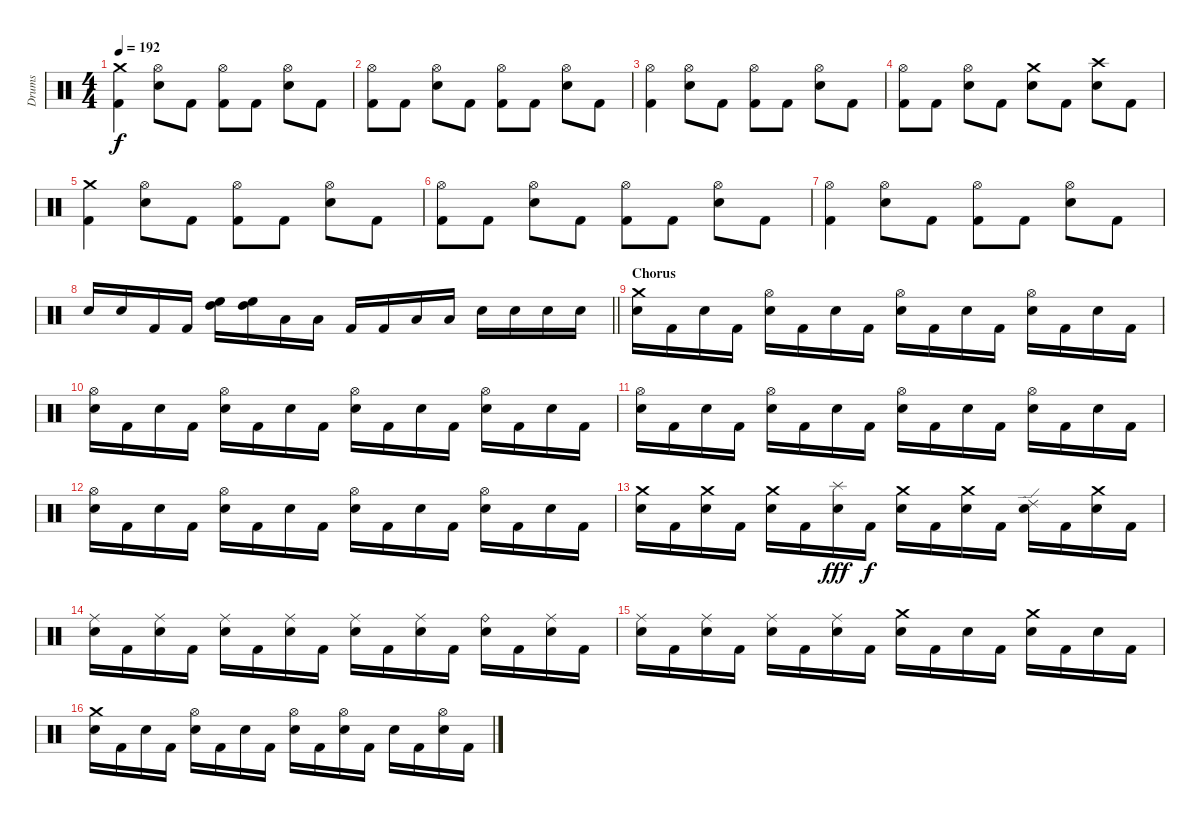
\track ("Drums" "Drums") {instrument percussion}
\staff {score}
\articulation defaults
\ts (4 4)
\tempo 192
\clef neutral
\ks c
("Crash medium (hit)" "Kick (hit) 2").4{dy f} ("Hi-Hat (open)" "Electric Snare (hit)").8 "Kick (hit) 2".8 ("Hi-Hat (open)" "Kick (hit) 2").8 "Kick (hit) 2".8 ("Hi-Hat (open)" "Electric Snare (hit)").8 "Kick (hit) 2".8 |
("Hi-Hat (open)" "Kick (hit) 2").8 "Kick (hit) 2".8 ("Hi-Hat (open)" "Electric Snare (hit)").8 "Kick (hit) 2".8 ("Hi-Hat (open)" "Kick (hit) 2").8 "Kick (hit) 2".8 ("Hi-Hat (open)" "Electric Snare (hit)").8 "Kick (hit) 2".8 |
("Hi-Hat (open)" "Kick (hit) 2").4 ("Hi-Hat (open)" "Electric Snare (hit)").8 "Kick (hit) 2".8 ("Hi-Hat (open)" "Kick (hit) 2").8 "Kick (hit) 2".8 ("Hi-Hat (open)" "Electric Snare (hit)").8 "Kick (hit) 2".8 |
("Hi-Hat (open)" "Kick (hit) 2").8 "Kick (hit) 2".8 ("Hi-Hat (open)" "Electric Snare (hit)").8 "Kick (hit) 2".8 ("Crash medium (hit)" "Electric Snare (hit)").8 "Kick (hit) 2".8 ("Crash high (hit)" "Electric Snare (hit)").8 "Kick (hit) 2".8 |
("Crash medium (hit)" "Kick (hit) 2").4 ("Hi-Hat (open)" "Electric Snare (hit)").8 "Kick (hit) 2".8 ("Hi-Hat (open)" "Kick (hit) 2").8 "Kick (hit) 2".8 ("Hi-Hat (open)" "Electric Snare (hit)").8 "Kick (hit) 2".8 |
("Hi-Hat (open)" "Kick (hit) 2").8 "Kick (hit) 2".8 ("Hi-Hat (open)" "Electric Snare (hit)").8 "Kick (hit) 2".8 ("Hi-Hat (open)" "Kick (hit) 2").8 "Kick (hit) 2".8 ("Hi-Hat (open)" "Electric Snare (hit)").8 "Kick (hit) 2".8 |
("Hi-Hat (open)" "Kick (hit) 2").4 ("Hi-Hat (open)" "Electric Snare (hit)").8 "Kick (hit) 2".8 ("Hi-Hat (open)" "Kick (hit) 2").8 "Kick (hit) 2".8 ("Hi-Hat (open)" "Electric Snare (hit)").8 "Kick (hit) 2".8 |
\barLineRight lightlight "Electric Snare (hit)".16 "Electric Snare (hit)".16 "Kick (hit) 2".16 "Kick (hit) 2".16
("High Tom (hit)" "High Floor Tom (hit)").16 ("High Tom (hit)" "High Floor Tom (hit)").16 "Low Tom (hit)".16 "Low Tom (hit)".16 "Kick (hit) 2".16 "Kick (hit) 2".16 "Low Tom (hit)".16 "Low Tom (hit)".16 "Electric Snare (hit)".16 "Electric Snare (hit)".16 "Electric Snare (hit)".16 "Electric Snare (hit)".16 |
\section ("" "Chorus")
("Crash medium (hit)" "Electric Snare (hit)").16 "Kick (hit) 2".16 "Electric Snare (hit)".16 "Kick (hit) 2".16 ("Hi-Hat (open)" "Electric Snare (hit)").16 "Kick (hit) 2".16 "Electric Snare (hit)".16 "Kick (hit) 2".16 ("Hi-Hat (open)" "Electric Snare (hit)").16 "Kick (hit) 2".16 "Electric Snare (hit)".16 "Kick (hit) 2".16 ("Hi-Hat (open)" "Electric Snare (hit)").16 "Kick (hit) 2".16 "Electric Snare (hit)".16 "Kick (hit) 2".16 |
("Hi-Hat (open)" "Electric Snare (hit)").16 "Kick (hit) 2".16 "Electric Snare (hit)".16 "Kick (hit) 2".16 ("Hi-Hat (open)" "Electric Snare (hit)").16 "Kick (hit) 2".16 "Electric Snare (hit)".16 "Kick (hit) 2".16 ("Hi-Hat (open)" "Electric Snare (hit)").16 "Kick (hit) 2".16 "Electric Snare (hit)".16 "Kick (hit) 2".16 ("Hi-Hat (open)" "Electric Snare (hit)").16 "Kick (hit) 2".16 "Electric Snare (hit)".16 "Kick (hit) 2".16 |
("Hi-Hat (open)" "Electric Snare (hit)").16 "Kick (hit) 2".16 "Electric Snare (hit)".16 "Kick (hit) 2".16 ("Hi-Hat (open)" "Electric Snare (hit)").16 "Kick (hit) 2".16 "Electric Snare (hit)".16 "Kick (hit) 2".16 ("Hi-Hat (open)" "Electric Snare (hit)").16 "Kick (hit) 2".16 "Electric Snare (hit)".16 "Kick (hit) 2".16 ("Hi-Hat (open)" "Electric Snare (hit)").16 "Kick (hit) 2".16 "Electric Snare (hit)".16 "Kick (hit) 2".16 |
("Hi-Hat (open)" "Electric Snare (hit)").16 "Kick (hit) 2".16 "Electric Snare (hit)".16 "Kick (hit) 2".16 ("Hi-Hat (open)" "Electric Snare (hit)").16 "Kick (hit) 2".16 "Electric Snare (hit)".16 "Kick (hit) 2".16 ("Hi-Hat (open)" "Electric Snare (hit)").16 "Kick (hit) 2".16 "Electric Snare (hit)".16 "Kick (hit) 2".16 ("Hi-Hat (open)" "Electric Snare (hit)").16 "Kick (hit) 2".16 "Electric Snare (hit)".16 "Kick (hit) 2".16 |
("Crash medium (hit)" "Electric Snare (hit)").16 "Kick (hit) 2".16 ("Crash medium (hit)" "Electric Snare (hit)").16 "Kick (hit) 2".16 ("Crash medium (hit)" "Electric Snare (hit)").16 "Kick (hit) 2".16 ("Splash (hit)" "Electric Snare (hit)").16{dy fff} "Kick (hit) 2".16{dy f} ("Crash medium (hit)" "Electric Snare (hit)").16 "Kick (hit) 2".16 ("Crash medium (hit)" "Electric Snare (hit)").16 "Kick (hit) 2".16 ("Ride (edge) 2" "Electric Snare (hit)").16 "Kick (hit) 2".16 ("Crash medium (hit)" "Electric Snare (hit)").16 "Kick (hit) 2".16 |
("Ride (middle)" "Electric Snare (hit)").16 "Kick (hit) 2".16 ("Ride (middle)" "Electric Snare (hit)").16 "Kick (hit) 2".16 ("Ride (middle)" "Electric Snare (hit)").16 "Kick (hit) 2".16 ("Ride (middle)" "Electric Snare (hit)").16 "Kick (hit) 2".16 ("Ride (middle)" "Electric Snare (hit)").16 "Kick (hit) 2".16 ("Ride (middle)" "Electric Snare (hit)").16 "Kick (hit) 2".16 ("Ride (bell)" "Electric Snare (hit)").16 "Kick (hit) 2".16 ("Ride (middle)" "Electric Snare (hit)").16 "Kick (hit) 2".16 |
("Ride (middle)" "Electric Snare (hit)").16 "Kick (hit) 2".16 ("Ride (middle)" "Electric Snare (hit)").16 "Kick (hit) 2".16 ("Ride (middle)" "Electric Snare (hit)").16 "Kick (hit) 2".16 ("Ride (middle)" "Electric Snare (hit)").16 "Kick (hit) 2".16 ("Crash medium (hit)" "Electric Snare (hit)").16 "Kick (hit) 2".16 "Electric Snare (hit)".16 "Kick (hit) 2".16 ("Crash medium (hit)" "Electric Snare (hit)").16 "Kick (hit) 2".16 "Electric Snare (hit)".16 "Kick (hit) 2".16 |
("Crash medium (hit)" "Electric Snare (hit)").16 "Kick (hit) 2".16 "Electric Snare (hit)".16 "Kick (hit) 2".16 ("Hi-Hat (open)" "Electric Snare (hit)").16 "Kick (hit) 2".16 "Electric Snare (hit)".16 "Kick (hit) 2".16 ("Hi-Hat (open)" "Electric Snare (hit)").16 "Kick (hit) 2".16 ("Hi-Hat (open)" "Electric Snare (hit)").16 "Kick (hit) 2".16 "Electric Snare (hit)".16 "Kick (hit) 2".16 ("Hi-Hat (open)" "Electric Snare (hit)").16 "Kick (hit) 2".16
